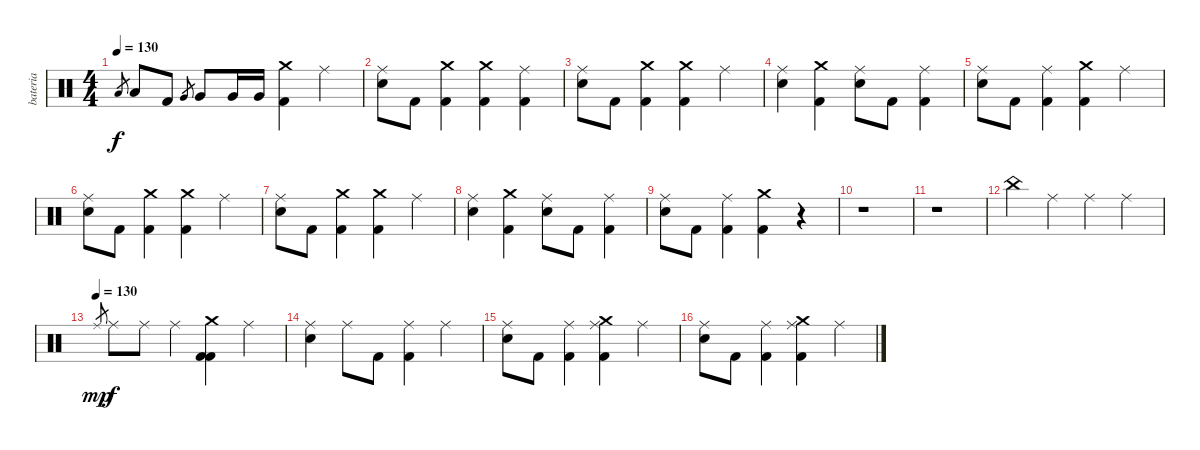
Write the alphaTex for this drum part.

\track ("bateria" "bateria") {instrument percussion}
\staff {score}
\articulation defaults
\ts (4 4)
\tempo 130
\clef neutral
\ks c "Low Tom (hit)".8{gr dy f} "Low Tom (hit)".8 "Kick (hit) 2".8 "Very Low Tom (hit)".8{gr} "Very Low Tom (hit)".8 "Very Low Tom (hit)".16 "Very Low Tom (hit)".16
("Crash medium (hit)" "Kick (hit) 2").4 "Ride (middle)".4 |
("Ride (middle)" "Snare (hit) 2").8 "Kick (hit) 2".8 ("Crash medium (hit)" "Kick (hit) 2").4 ("Crash medium (hit)" "Kick (hit) 2").4 ("Ride (middle)" "Kick (hit) 2").4 |
("Ride (middle)" "Snare (hit) 2").8 "Kick (hit) 2".8 ("Crash medium (hit)" "Kick (hit) 2").4 ("Crash medium (hit)" "Kick (hit) 2").4 "Ride (middle)".4 |
("Ride (middle)" "Snare (hit) 2").4 ("Crash medium (hit)" "Kick (hit) 2").4 ("Ride (middle)" "Snare (hit) 2").8 "Kick (hit) 2".8 ("Ride (middle)" "Kick (hit) 2").4 |
("Ride (middle)" "Snare (hit) 2").8 "Kick (hit) 2".8 ("Ride (middle)" "Kick (hit) 2").4 ("Crash medium (hit)" "Kick (hit) 2").4 "Ride (middle)".4 |
("Ride (middle)" "Snare (hit) 2").8 "Kick (hit) 2".8 ("Crash medium (hit)" "Kick (hit) 2").4 ("Crash medium (hit)" "Kick (hit) 2").4 "Ride (middle)".4 |
("Ride (middle)" "Snare (hit) 2").8 "Kick (hit) 2".8 ("Crash medium (hit)" "Kick (hit) 2").4 ("Crash medium (hit)" "Kick (hit) 2").4 "Ride (middle)".4 |
("Ride (middle)" "Snare (hit) 2").4 ("Crash medium (hit)" "Kick (hit) 2").4 ("Ride (middle)" "Snare (hit) 2").8 "Kick (hit) 2".8 ("Ride (middle)" "Kick (hit) 2").4 |
("Ride (middle)" "Snare (hit) 2").8 "Kick (hit) 2".8 ("Ride (middle)" "Kick (hit) 2").4 ("Crash medium (hit)" "Kick (hit) 2").4 r.4 |
r.1 |
r.1 |
"China (hit)".4 "Ride (middle)".4 "Ride (middle)".4 "Ride (middle)".4 |
\tempo (130)
"Ride (middle)".8{gr dy mp} "Ride (middle)".8{dy f} "Ride (middle)".8 "Ride (middle)".4 ("Crash medium (hit)" "Kick (hit) 2" "Kick (hit) 2").4 "Ride (middle)".4 |
("Ride (middle)" "Snare (hit) 2").4 "Ride (middle)".8 "Kick (hit) 2".8 ("Ride (middle)" "Kick (hit) 2").4 "Ride (middle)".4 |
("Ride (middle)" "Snare (hit) 2").8 "Kick (hit) 2".8 ("Ride (middle)" "Kick (hit) 2").4 ("Crash medium (hit)" "Ride (middle)" "Kick (hit) 2").4 "Ride (middle)".4 |
("Ride (middle)" "Snare (hit) 2").8 "Kick (hit) 2".8 ("Ride (middle)" "Kick (hit) 2").4 ("Crash medium (hit)" "Ride (middle)" "Kick (hit) 2").4 "Ride (middle)".4
